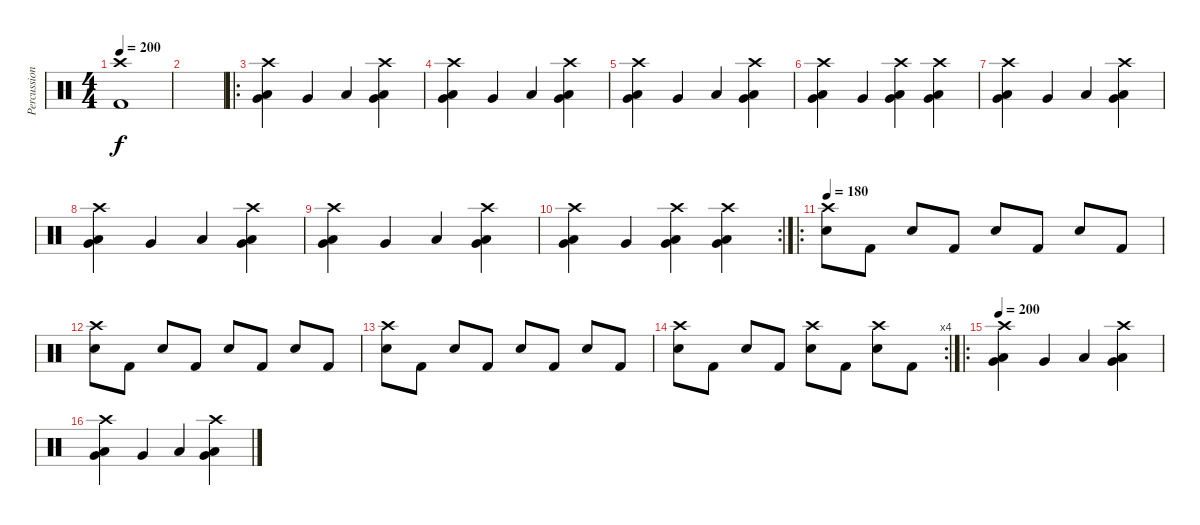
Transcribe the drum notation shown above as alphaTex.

\track ("Percussion" "Percussion") {instrument percussion}
\staff {score}
\articulation defaults
\ts (4 4)
\tempo 200
\clef neutral
\ks c
("Kick (hit) 2" "Crash high (hit)").1{dy f} |
|
\ro
("Very Low Tom (hit)" "Low Floor Tom (hit)" "Crash high (hit)").4 "Very Low Tom (hit)".4 "Low Floor Tom (hit)".4 ("Very Low Tom (hit)" "Low Floor Tom (hit)" "Crash high (hit)").4 |
("Very Low Tom (hit)" "Low Floor Tom (hit)" "Crash high (hit)").4 "Very Low Tom (hit)".4 "Low Floor Tom (hit)".4 ("Very Low Tom (hit)" "Low Floor Tom (hit)" "Crash high (hit)").4 |
("Very Low Tom (hit)" "Low Floor Tom (hit)" "Crash high (hit)").4 "Very Low Tom (hit)".4 "Low Floor Tom (hit)".4 ("Very Low Tom (hit)" "Low Floor Tom (hit)" "Crash high (hit)").4 |
("Very Low Tom (hit)" "Low Floor Tom (hit)" "Crash high (hit)").4 "Very Low Tom (hit)".4 ("Very Low Tom (hit)" "Low Floor Tom (hit)" "Crash high (hit)").4 ("Very Low Tom (hit)" "Low Floor Tom (hit)" "Crash high (hit)").4 |
("Very Low Tom (hit)" "Low Floor Tom (hit)" "Crash high (hit)").4 "Very Low Tom (hit)".4 "Low Floor Tom (hit)".4 ("Very Low Tom (hit)" "Low Floor Tom (hit)" "Crash high (hit)").4 |
("Very Low Tom (hit)" "Low Floor Tom (hit)" "Crash high (hit)").4 "Very Low Tom (hit)".4 "Low Floor Tom (hit)".4 ("Very Low Tom (hit)" "Low Floor Tom (hit)" "Crash high (hit)").4 |
("Very Low Tom (hit)" "Low Floor Tom (hit)" "Crash high (hit)").4 "Very Low Tom (hit)".4 "Low Floor Tom (hit)".4 ("Very Low Tom (hit)" "Low Floor Tom (hit)" "Crash high (hit)").4 |
\rc 2
("Very Low Tom (hit)" "Low Floor Tom (hit)" "Crash high (hit)").4 "Very Low Tom (hit)".4 ("Very Low Tom (hit)" "Low Floor Tom (hit)" "Crash high (hit)").4 ("Very Low Tom (hit)" "Low Floor Tom (hit)" "Crash high (hit)").4 |
\ro
\tempo 180
("Electric Snare (hit)" "Crash high (hit)").8 "Kick (hit) 2".8 "Electric Snare (hit)".8 "Kick (hit) 2".8 "Electric Snare (hit)".8 "Kick (hit) 2".8 "Electric Snare (hit)".8 "Kick (hit) 2".8 |
("Electric Snare (hit)" "Crash high (hit)").8 "Kick (hit) 2".8 "Electric Snare (hit)".8 "Kick (hit) 2".8 "Electric Snare (hit)".8 "Kick (hit) 2".8 "Electric Snare (hit)".8 "Kick (hit) 2".8 |
("Electric Snare (hit)" "Crash high (hit)").8 "Kick (hit) 2".8 "Electric Snare (hit)".8 "Kick (hit) 2".8 "Electric Snare (hit)".8 "Kick (hit) 2".8 "Electric Snare (hit)".8 "Kick (hit) 2".8 |
\rc 4
("Electric Snare (hit)" "Crash high (hit)").8 "Kick (hit) 2".8 "Electric Snare (hit)".8 "Kick (hit) 2".8 ("Electric Snare (hit)" "Crash high (hit)").8 "Kick (hit) 2".8 ("Electric Snare (hit)" "Crash high (hit)").8 "Kick (hit) 2".8 |
\ro
\tempo 200
("Very Low Tom (hit)" "Low Floor Tom (hit)" "Crash high (hit)").4 "Very Low Tom (hit)".4 "Low Floor Tom (hit)".4 ("Very Low Tom (hit)" "Low Floor Tom (hit)" "Crash high (hit)").4 |
("Very Low Tom (hit)" "Low Floor Tom (hit)" "Crash high (hit)").4 "Very Low Tom (hit)".4 "Low Floor Tom (hit)".4 ("Very Low Tom (hit)" "Low Floor Tom (hit)" "Crash high (hit)").4
